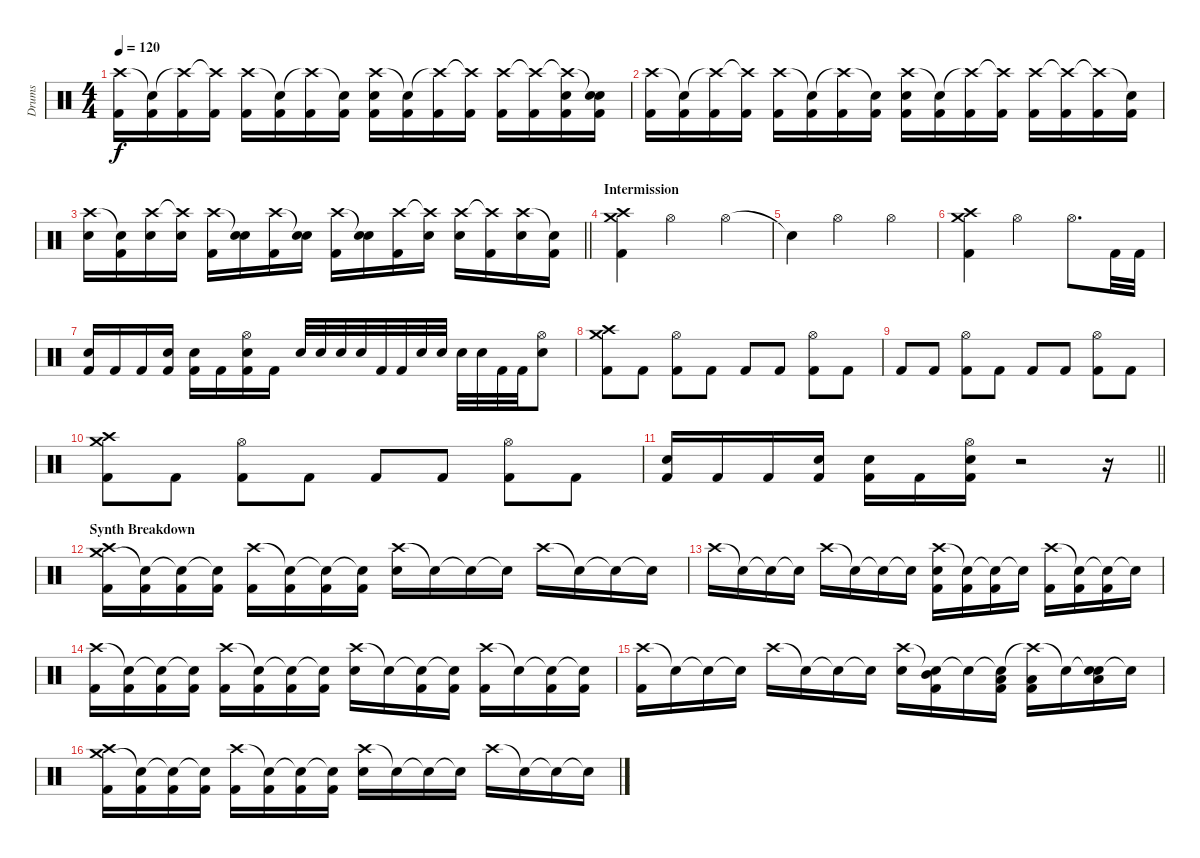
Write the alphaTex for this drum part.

\track ("Drums" "Drums") {instrument percussion}
\staff {score}
\articulation defaults
\ts (4 4)
\tempo 120
\clef neutral
\ks c
("Crash high (hit)" "Kick (hit) 2").16{dy f} ("Snare (hit)"{t} "Kick (hit) 2").16 ("Crash high (hit)"{t} "Kick (hit) 2").16 ("Crash high (hit)"{t} "Kick (hit) 2").16 ("Crash high (hit)" "Kick (hit) 2").16 ("Snare (hit)"{t} "Kick (hit) 2").16 ("Crash high (hit)"{t} "Kick (hit) 2").16 ("Snare (hit)"{t} "Kick (hit) 2").16 ("Crash high (hit)" "Electric Snare (hit)" "Kick (hit) 2").16 ("Snare (hit)"{t} "Kick (hit) 2").16 ("Crash high (hit)"{t} "Kick (hit) 2").16 ("Crash high (hit)"{t} "Kick (hit) 2").16 ("Crash high (hit)" "Kick (hit) 2").16 ("Crash high (hit)"{t} "Kick (hit) 2").16 ("Crash high (hit)"{t} "Electric Snare (hit)" "Kick (hit) 2").16 ("Snare (hit)"{t} "Electric Snare (hit)" "Kick (hit) 2").16 |
("Crash high (hit)" "Kick (hit) 2").16 ("Snare (hit)"{t} "Kick (hit) 2").16 ("Crash high (hit)"{t} "Kick (hit) 2").16 ("Crash high (hit)"{t} "Kick (hit) 2").16 ("Crash high (hit)" "Kick (hit) 2").16 ("Snare (hit)"{t} "Kick (hit) 2").16 ("Crash high (hit)"{t} "Kick (hit) 2").16 ("Snare (hit)"{t} "Kick (hit) 2").16 ("Crash high (hit)" "Electric Snare (hit)" "Kick (hit) 2").16 ("Snare (hit)"{t} "Kick (hit) 2").16 ("Crash high (hit)"{t} "Kick (hit) 2").16 ("Crash high (hit)"{t} "Kick (hit) 2").16 ("Crash high (hit)" "Kick (hit) 2").16 ("Crash high (hit)"{t} "Kick (hit) 2").16 ("Crash high (hit)"{t} "Kick (hit) 2").16 ("Snare (hit)"{t} "Kick (hit) 2").16 |
\barLineRight lightlight
("Crash high (hit)" "Electric Snare (hit)").16 ("Snare (hit)"{t} "Kick (hit) 2").16 ("Crash high (hit)" "Electric Snare (hit)").16 ("Crash high (hit)"{t} "Electric Snare (hit)").16 ("Crash high (hit)" "Kick (hit) 2").16 ("Snare (hit)"{t} "Electric Snare (hit)").16 ("Crash high (hit)" "Kick (hit) 2").16 ("Snare (hit)"{t} "Electric Snare (hit)").16 ("Crash high (hit)" "Kick (hit) 2").16 ("Snare (hit)"{t} "Electric Snare (hit)").16 ("Crash high (hit)" "Kick (hit) 2").16 ("Crash high (hit)"{t} "Electric Snare (hit)").16 ("Crash high (hit)" "Electric Snare (hit)").16 ("Crash high (hit)"{t} "Kick (hit) 2").16 ("Crash high (hit)" "Electric Snare (hit)").16 ("Snare (hit)"{t} "Kick (hit) 2").16 |
\section ("" "Intermission")
("Crash medium (hit)" "Crash high (hit)" "Kick (hit) 2").4 "Hi-Hat (open)".2 "Hi-Hat (open)".4 |
"Snare (hit)"{t}.4 "Hi-Hat (open)".2 "Hi-Hat (open)".4 |
("Crash medium (hit)" "Crash high (hit)" "Kick (hit) 2").4 "Hi-Hat (open)".2 "Hi-Hat (open)".8{d} "Kick (hit) 2".32 "Kick (hit) 2".32 |
("Electric Snare (hit)" "Kick (hit) 2").16 "Kick (hit) 2".16 "Kick (hit) 2".16 ("Electric Snare (hit)" "Kick (hit) 2").16 ("Electric Snare (hit)" "Kick (hit) 2").16 "Kick (hit) 2".16 ("Hi-Hat (open)" "Electric Snare (hit)" "Kick (hit) 2").16 "Kick (hit) 2".16 "Electric Snare (hit)".32 "Electric Snare (hit)".32 "Electric Snare (hit)".32 "Electric Snare (hit)".32 "Kick (hit) 2".32 "Kick (hit) 2".32 "Electric Snare (hit)".32 "Electric Snare (hit)".32 "Electric Snare (hit)".32 "Electric Snare (hit)".32 "Kick (hit) 2".32 "Kick (hit) 2".32 ("Hi-Hat (open)" "Electric Snare (hit)").8 |
("Crash medium (hit)" "Crash high (hit)" "Kick (hit) 2").8 "Kick (hit) 2".8 ("Hi-Hat (open)" "Kick (hit) 2").8 "Kick (hit) 2".8 "Kick (hit) 2".8 "Kick (hit) 2".8 ("Hi-Hat (open)" "Kick (hit) 2").8 "Kick (hit) 2".8 |
"Kick (hit) 2".8 "Kick (hit) 2".8 ("Hi-Hat (open)" "Kick (hit) 2").8 "Kick (hit) 2".8 "Kick (hit) 2".8 "Kick (hit) 2".8 ("Hi-Hat (open)" "Kick (hit) 2").8 "Kick (hit) 2".8 |
("Crash medium (hit)" "Crash high (hit)" "Kick (hit) 2").8 "Kick (hit) 2".8 ("Hi-Hat (open)" "Kick (hit) 2").8 "Kick (hit) 2".8 "Kick (hit) 2".8 "Kick (hit) 2".8 ("Hi-Hat (open)" "Kick (hit) 2").8 "Kick (hit) 2".8 |
\barLineRight lightlight
("Electric Snare (hit)" "Kick (hit) 2").16 "Kick (hit) 2".16 "Kick (hit) 2".16 ("Electric Snare (hit)" "Kick (hit) 2").16 ("Electric Snare (hit)" "Kick (hit) 2").16 "Kick (hit) 2".16 ("Hi-Hat (open)" "Electric Snare (hit)" "Kick (hit) 2").16 r.2 r.16 |
\section ("" "Synth Breakdown")
("Crash medium (hit)" "Crash high (hit)" "Kick (hit) 2").16 ("Snare (hit)"{t} "Kick (hit) 2").16 ("Snare (hit)"{t} "Kick (hit) 2").16 ("Snare (hit)"{t} "Kick (hit) 2").16 ("Crash high (hit)" "Kick (hit) 2").16 ("Snare (hit)"{t} "Kick (hit) 2").16 ("Snare (hit)"{t} "Kick (hit) 2").16 ("Snare (hit)"{t} "Kick (hit) 2").16 ("Crash high (hit)" "Electric Snare (hit)").16 "Snare (hit)"{t}.16 "Snare (hit)"{t}.16 "Snare (hit)"{t}.16 "Crash high (hit)".16 "Snare (hit)"{t}.16 "Snare (hit)"{t}.16 "Snare (hit)"{t}.16 |
"Crash high (hit)".16 "Snare (hit)"{t}.16 "Snare (hit)"{t}.16 "Snare (hit)"{t}.16 "Crash high (hit)".16 "Snare (hit)"{t}.16 "Snare (hit)"{t}.16 "Snare (hit)"{t}.16 ("Crash high (hit)" "Electric Snare (hit)" "Kick (hit) 2").16 ("Snare (hit)"{t} "Kick (hit) 2").16 ("Snare (hit)"{t} "Kick (hit) 2").16 "Snare (hit)"{t}.16 ("Crash high (hit)" "Kick (hit) 2").16 ("Snare (hit)"{t} "Kick (hit) 2").16 ("Snare (hit)"{t} "Kick (hit) 2").16 "Snare (hit)"{t}.16 |
("Crash high (hit)" "Kick (hit) 2").16 ("Snare (hit)"{t} "Kick (hit) 2").16 ("Snare (hit)"{t} "Kick (hit) 2").16 ("Snare (hit)"{t} "Kick (hit) 2").16 ("Crash high (hit)" "Kick (hit) 2").16 ("Snare (hit)"{t} "Kick (hit) 2").16 ("Snare (hit)"{t} "Kick (hit) 2").16 ("Snare (hit)"{t} "Kick (hit) 2").16 ("Crash high (hit)" "Electric Snare (hit)").16 "Snare (hit)"{t}.16 ("Snare (hit)"{t} "Kick (hit) 2").16 ("Snare (hit)"{t} "Kick (hit) 2").16 ("Crash high (hit)" "Kick (hit) 2").16 "Snare (hit)"{t}.16 ("Snare (hit)"{t} "Kick (hit) 2").16 ("Snare (hit)"{t} "Kick (hit) 2").16 |
("Crash high (hit)" "Kick (hit) 2").16 "Snare (hit)"{t}.16 "Snare (hit)"{t}.16 "Snare (hit)"{t}.16 "Crash high (hit)".16 "Snare (hit)"{t}.16 "Snare (hit)"{t}.16 "Snare (hit)"{t}.16 ("Crash high (hit)" "Electric Snare (hit)").16 ("Snare (hit)"{t} "Mid Tom (hit)" "Kick (hit) 2").16 "Snare (hit)"{t}.16 ("Snare (hit)"{t} "Low Floor Tom (hit)" "Kick (hit) 2").16 ("Crash high (hit)"{t} "Low Floor Tom (hit)" "Kick (hit) 2").16 "Snare (hit)"{t}.16 ("Snare (hit)"{t} "Electric Snare (hit)" "Low Floor Tom (hit)").16 "Snare (hit)"{t}.16 |
("Crash medium (hit)" "Crash high (hit)" "Kick (hit) 2").16 ("Snare (hit)"{t} "Kick (hit) 2").16 ("Snare (hit)"{t} "Kick (hit) 2").16 ("Snare (hit)"{t} "Kick (hit) 2").16 ("Crash high (hit)" "Kick (hit) 2").16 ("Snare (hit)"{t} "Kick (hit) 2").16 ("Snare (hit)"{t} "Kick (hit) 2").16 ("Snare (hit)"{t} "Kick (hit) 2").16 ("Crash high (hit)" "Electric Snare (hit)").16 "Snare (hit)"{t}.16 "Snare (hit)"{t}.16 "Snare (hit)"{t}.16 "Crash high (hit)".16 "Snare (hit)"{t}.16 "Snare (hit)"{t}.16 "Snare (hit)"{t}.16
